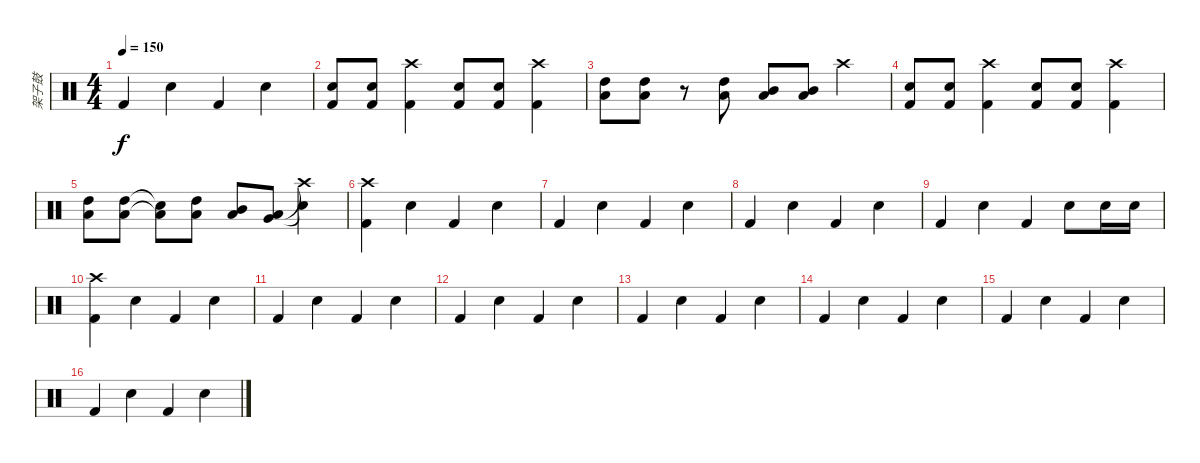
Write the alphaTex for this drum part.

\track ("架子鼓" "架子鼓") {instrument percussion}
\staff {score}
\articulation defaults
\ts (4 4)
\tempo 150
\clef neutral
\ks c "Kick (hit) 2".4{dy f} "Snare (hit) 2".4 "Kick (hit) 2".4 "Snare (hit) 2".4
|
("Kick (hit) 2" "Snare (hit) 2").8 ("Kick (hit) 2" "Snare (hit) 2").8 ("Crash high (hit)" "Kick (hit) 2").4 ("Kick (hit) 2" "Snare (hit) 2").8 ("Kick (hit) 2" "Snare (hit) 2").8 ("Crash high (hit)" "Kick (hit) 2").4 |
("High Tom (hit)" "Low Tom (hit)").8 ("High Tom (hit)" "Low Tom (hit)").8 r.8 ("High Tom (hit)" "Low Tom (hit)").8 ("Mid Tom (hit)" "Low Tom (hit)").8 ("Mid Tom (hit)" "Low Tom (hit)").8 "Crash high (hit)".4 |
("Kick (hit) 2" "Snare (hit) 2").8 ("Kick (hit) 2" "Snare (hit) 2").8 ("Crash high (hit)" "Kick (hit) 2").4 ("Kick (hit) 2" "Snare (hit) 2").8 ("Kick (hit) 2" "Snare (hit) 2").8 ("Crash high (hit)" "Kick (hit) 2").4 |
("High Tom (hit)" "Low Tom (hit)").8 ("High Tom (hit)" "Low Tom (hit)").8 ("Snare (hit)"{t} "Low Tom (hit)"{t}).8 ("High Tom (hit)" "Low Tom (hit)").8 ("Mid Tom (hit)" "Low Tom (hit)").8 ("Very Low Tom (hit)" "Low Tom (hit)").8 ("Snare (hit)"{t} "Crash high (hit)"{t}).4 |
("Crash high (hit)" "Kick (hit) 2").4 "Snare (hit) 2".4 "Kick (hit) 2".4 "Snare (hit) 2".4 |
"Kick (hit) 2".4 "Snare (hit) 2".4 "Kick (hit) 2".4 "Snare (hit) 2".4 |
"Kick (hit) 2".4 "Snare (hit) 2".4 "Kick (hit) 2".4 "Snare (hit) 2".4 |
"Kick (hit) 2".4 "Snare (hit) 2".4 "Kick (hit) 2".4 "Snare (hit) 2".8 "Snare (hit) 2".16 "Snare (hit) 2".16 |
("Crash high (hit)" "Kick (hit) 2").4 "Snare (hit) 2".4 "Kick (hit) 2".4 "Snare (hit) 2".4 |
"Kick (hit) 2".4 "Snare (hit) 2".4 "Kick (hit) 2".4 "Snare (hit) 2".4 |
"Kick (hit) 2".4 "Snare (hit) 2".4 "Kick (hit) 2".4 "Snare (hit) 2".4 |
"Kick (hit) 2".4 "Snare (hit) 2".4 "Kick (hit) 2".4 "Snare (hit) 2".4 |
"Kick (hit) 2".4 "Snare (hit) 2".4 "Kick (hit) 2".4 "Snare (hit) 2".4 |
"Kick (hit) 2".4 "Snare (hit) 2".4 "Kick (hit) 2".4 "Snare (hit) 2".4 |
"Kick (hit) 2".4 "Snare (hit) 2".4 "Kick (hit) 2".4 "Snare (hit) 2".4
